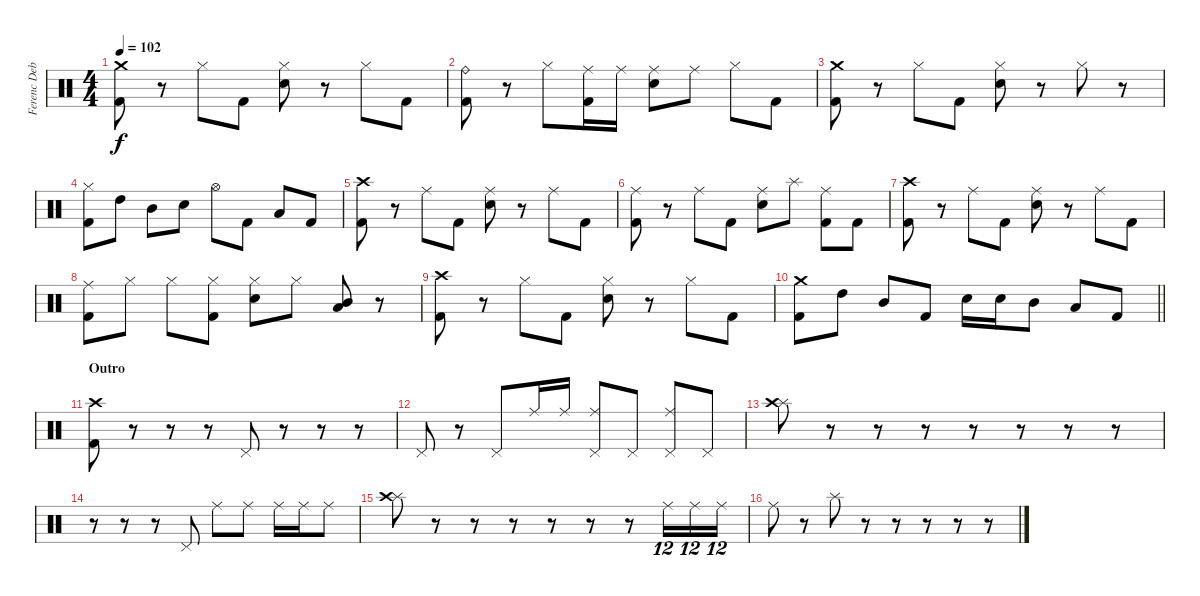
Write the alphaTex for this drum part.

\track ("Ferenc Debreczeni - drums" "Ferenc Deb") {instrument percussion}
\staff {score}
\articulation defaults
\ts (4 4)
\tempo 102
\clef neutral
\ks c
("Kick (hit) 2" "Crash medium (hit)").8{dy f} r.8 "Hi-Hat (closed)".8 "Kick (hit) 2".8 ("Snare (hit) 2" "Hi-Hat (closed)").8 r.8 "Hi-Hat (closed)".8 "Kick (hit) 2".8 |
("Kick (hit) 2" "Ride (bell)").8 r.8 "Hi-Hat (closed)".8 ("Kick (hit) 2" "Ride (middle)").16 "Ride (middle)".16 ("Snare (hit) 2" "Ride (middle)").8 "Ride (middle)".8 "Hi-Hat (closed)".8 "Kick (hit) 2".8 |
("Kick (hit) 2" "Crash medium (hit)").8 r.8 "Hi-Hat (closed)".8 "Kick (hit) 2".8 ("Snare (hit) 2" "Hi-Hat (closed)").8 r.8 "Hi-Hat (closed)".8 r.8 |
("Hi-Hat (closed)" "Kick (hit) 2").8 "High Tom (hit)".8 "Mid Tom (hit)".8 "Snare (hit) 2".8 "Hi-Hat (open)".8 "Kick (hit) 2".8 "Low Tom (hit)".8 "Kick (hit) 2".8 |
("Kick (hit) 2" "Crash high (hit)").8 r.8 "Ride (middle)".8 "Kick (hit) 2".8 ("Snare (hit) 2" "Ride (middle)").8 r.8 "Ride (middle)".8 "Kick (hit) 2".8 |
("Kick (hit) 2" "Ride (middle)").8 r.8 "Ride (middle)".8 "Kick (hit) 2".8 ("Snare (hit) 2" "Ride (middle)").8 "Splash (hit)".8 ("Kick (hit) 2" "Ride (middle)").8 "Kick (hit) 2".8 |
("Kick (hit) 2" "Crash high (hit)").8 r.8 "Ride (middle)".8 "Kick (hit) 2".8 ("Snare (hit) 2" "Ride (middle)").8 r.8 "Ride (middle)".8 "Kick (hit) 2".8 |
("Kick (hit) 2" "Ride (middle)").8 "Hi-Hat (closed)".8 "Hi-Hat (closed)".8 ("Kick (hit) 2" "Hi-Hat (closed)").8 ("Snare (hit) 2" "Hi-Hat (closed)").8 "Hi-Hat (closed)".8 ("Low Tom (hit)" "Mid Tom (hit)").8 r.8 |
("Kick (hit) 2" "Crash high (hit)").8 r.8 "Hi-Hat (closed)".8 "Kick (hit) 2".8 ("Snare (hit) 2" "Hi-Hat (closed)").8 r.8 "Hi-Hat (closed)".8 "Kick (hit) 2".8 |
\barLineRight lightlight
("Crash medium (hit)" "Kick (hit) 2").8 "High Tom (hit)".8 "Mid Tom (hit)".8 "Kick (hit) 2".8 "Snare (hit) 2".16 "Snare (hit) 2".16 "Mid Tom (hit)".8 "Low Tom (hit)".8 "Kick (hit) 2".8 |
\section ("" "Outro")
("Crash high (hit)" "Kick (hit) 2").8 r.8 r.8 r.8 "Pedal Hi-Hat (hit)".8 r.8 r.8 r.8 |
"Pedal Hi-Hat (hit)".8 r.8 "Pedal Hi-Hat (hit)".8 "Ride (middle)".16 "Ride (middle)".16 ("Ride (middle)" "Pedal Hi-Hat (hit)").8 "Pedal Hi-Hat (hit)".8 ("Ride (middle)" "Pedal Hi-Hat (hit)").8 "Pedal Hi-Hat (hit)".8 |
("Splash (hit)" "Crash high (hit)").8 r.8 r.8 r.8 r.8 r.8 r.8 r.8 |
r.8 r.8 r.8 "Pedal Hi-Hat (hit)".8 "Ride (middle)".8 "Ride (middle)".8 "Ride (middle)".16 "Ride (middle)".16 "Ride (middle)".8 |
("Splash (hit)" "Crash high (hit)").8 r.8 r.8 r.8 r.8 r.8 r.8 "Ride (middle)".16{tu (12 8)} "Ride (middle)".16{tu (12 8)} "Ride (middle)".16{tu (12 8)} |
"Ride (middle)".8 r.8 "Splash (hit)".8 r.8 r.8 r.8 r.8 r.8
